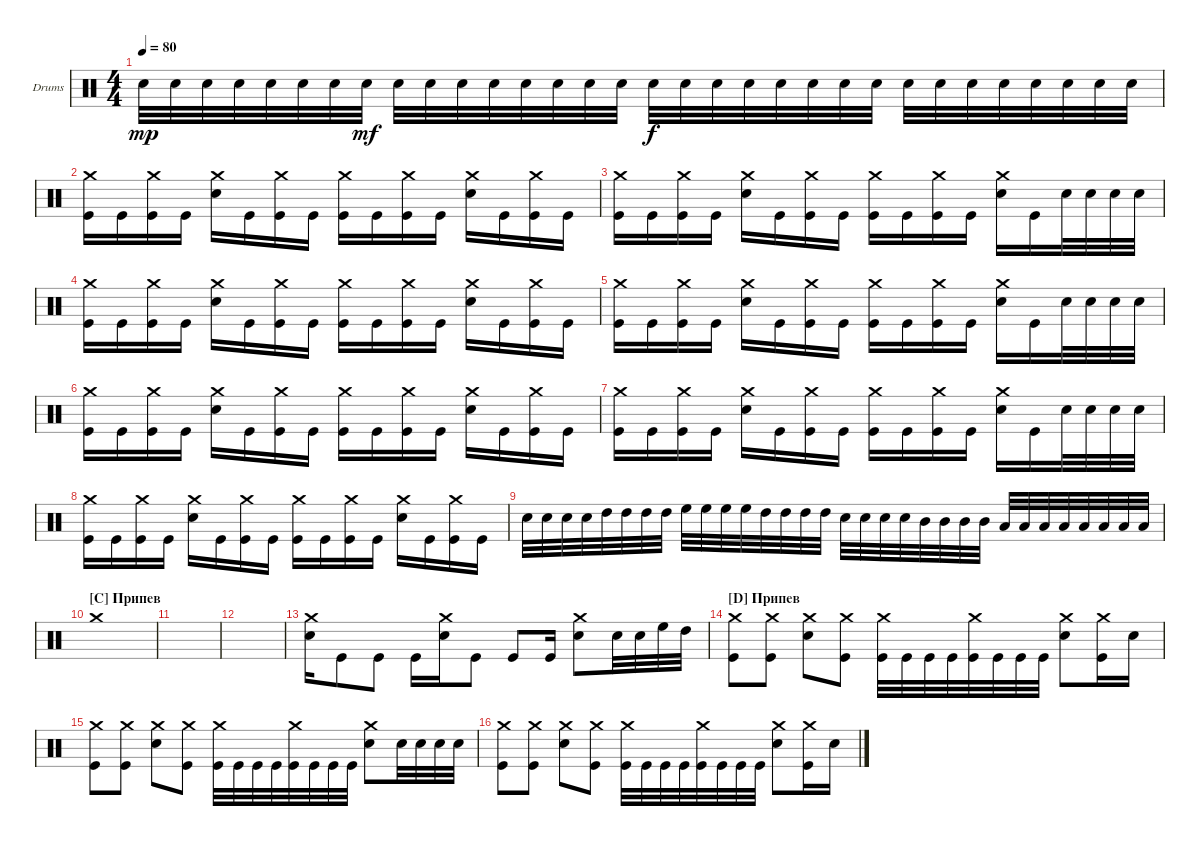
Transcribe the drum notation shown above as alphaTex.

\defaultSystemsLayout 4
\bracketExtendMode groupsimilarinstruments
\firstSystemTrackNameOrientation horizontal
\otherSystemsTrackNameOrientation horizontal
\track ("Drumkit" "Drums") {instrument percussion}
\staff {score}
\articulation defaults
\ts (4 4)
\tempo 80
\clef neutral
\ks c "Snare (hit) 2".32{dy mp} "Snare (hit) 2".32 "Snare (hit) 2".32 "Snare (hit) 2".32 "Snare (hit) 2".32 "Snare (hit) 2".32 "Snare (hit) 2".32 "Snare (hit) 2".32{dy mf} "Snare (hit) 2".32 "Snare (hit) 2".32 "Snare (hit) 2".32 "Snare (hit) 2".32 "Snare (hit) 2".32 "Snare (hit) 2".32 "Snare (hit) 2".32 "Snare (hit) 2".32 "Snare (hit) 2".32{dy f} "Snare (hit) 2".32 "Snare (hit) 2".32 "Snare (hit) 2".32 "Snare (hit) 2".32 "Snare (hit) 2".32 "Snare (hit) 2".32 "Snare (hit) 2".32 "Snare (hit) 2".32 "Snare (hit) 2".32 "Snare (hit) 2".32 "Snare (hit) 2".32 "Snare (hit) 2".32 "Snare (hit) 2".32 "Snare (hit) 2".32 "Snare (hit) 2".32
|
("Crash medium (hit)" "Kick (hit)").16 "Kick (hit)".16 ("Kick (hit)" "Crash medium (hit)").16 "Kick (hit)".16 ("Snare (hit) 2" "Crash medium (hit)").16 "Kick (hit)".16 ("Kick (hit)" "Crash medium (hit)").16 "Kick (hit)".16 ("Kick (hit)" "Crash medium (hit)").16 "Kick (hit)".16 ("Kick (hit)" "Crash medium (hit)").16 "Kick (hit)".16 ("Snare (hit) 2" "Crash medium (hit)").16 "Kick (hit)".16 ("Kick (hit)" "Crash medium (hit)").16 "Kick (hit)".16 |
("Crash medium (hit)" "Kick (hit)").16 "Kick (hit)".16 ("Kick (hit)" "Crash medium (hit)").16 "Kick (hit)".16 ("Snare (hit) 2" "Crash medium (hit)").16 "Kick (hit)".16 ("Kick (hit)" "Crash medium (hit)").16 "Kick (hit)".16 ("Kick (hit)" "Crash medium (hit)").16 "Kick (hit)".16 ("Kick (hit)" "Crash medium (hit)").16 "Kick (hit)".16 ("Snare (hit) 2" "Crash medium (hit)").16 "Kick (hit)".16 "Snare (hit) 2".32 "Snare (hit) 2".32 "Snare (hit) 2".32 "Snare (hit) 2".32 |
("Crash medium (hit)" "Kick (hit)").16 "Kick (hit)".16 ("Kick (hit)" "Crash medium (hit)").16 "Kick (hit)".16 ("Snare (hit) 2" "Crash medium (hit)").16 "Kick (hit)".16 ("Kick (hit)" "Crash medium (hit)").16 "Kick (hit)".16 ("Kick (hit)" "Crash medium (hit)").16 "Kick (hit)".16 ("Kick (hit)" "Crash medium (hit)").16 "Kick (hit)".16 ("Snare (hit) 2" "Crash medium (hit)").16 "Kick (hit)".16 ("Kick (hit)" "Crash medium (hit)").16 "Kick (hit)".16 |
("Crash medium (hit)" "Kick (hit)").16 "Kick (hit)".16 ("Kick (hit)" "Crash medium (hit)").16 "Kick (hit)".16 ("Snare (hit) 2" "Crash medium (hit)").16 "Kick (hit)".16 ("Kick (hit)" "Crash medium (hit)").16 "Kick (hit)".16 ("Kick (hit)" "Crash medium (hit)").16 "Kick (hit)".16 ("Kick (hit)" "Crash medium (hit)").16 "Kick (hit)".16 ("Snare (hit) 2" "Crash medium (hit)").16 "Kick (hit)".16 "Snare (hit) 2".32 "Snare (hit) 2".32 "Snare (hit) 2".32 "Snare (hit) 2".32 |
("Crash medium (hit)" "Kick (hit)").16 "Kick (hit)".16 ("Kick (hit)" "Crash medium (hit)").16 "Kick (hit)".16 ("Snare (hit) 2" "Crash medium (hit)").16 "Kick (hit)".16 ("Kick (hit)" "Crash medium (hit)").16 "Kick (hit)".16 ("Kick (hit)" "Crash medium (hit)").16 "Kick (hit)".16 ("Kick (hit)" "Crash medium (hit)").16 "Kick (hit)".16 ("Snare (hit) 2" "Crash medium (hit)").16 "Kick (hit)".16 ("Kick (hit)" "Crash medium (hit)").16 "Kick (hit)".16 |
("Crash medium (hit)" "Kick (hit)").16 "Kick (hit)".16 ("Kick (hit)" "Crash medium (hit)").16 "Kick (hit)".16 ("Snare (hit) 2" "Crash medium (hit)").16 "Kick (hit)".16 ("Kick (hit)" "Crash medium (hit)").16 "Kick (hit)".16 ("Kick (hit)" "Crash medium (hit)").16 "Kick (hit)".16 ("Kick (hit)" "Crash medium (hit)").16 "Kick (hit)".16 ("Snare (hit) 2" "Crash medium (hit)").16 "Kick (hit)".16 "Snare (hit) 2".32 "Snare (hit) 2".32 "Snare (hit) 2".32 "Snare (hit) 2".32 |
("Crash medium (hit)" "Kick (hit)").16 "Kick (hit)".16 ("Kick (hit)" "Crash medium (hit)").16 "Kick (hit)".16 ("Snare (hit) 2" "Crash medium (hit)").16 "Kick (hit)".16 ("Kick (hit)" "Crash medium (hit)").16 "Kick (hit)".16 ("Kick (hit)" "Crash medium (hit)").16 "Kick (hit)".16 ("Kick (hit)" "Crash medium (hit)").16 "Kick (hit)".16 ("Snare (hit) 2" "Crash medium (hit)").16 "Kick (hit)".16 ("Kick (hit)" "Crash medium (hit)").16 "Kick (hit)".16 |
"Snare (hit) 2".32 "Snare (hit) 2".32 "Snare (hit) 2".32 "Snare (hit) 2".32 "High Tom (hit)".32 "High Tom (hit)".32 "High Tom (hit)".32 "High Tom (hit)".32 "High Floor Tom (hit)".32 "High Floor Tom (hit)".32 "High Floor Tom (hit)".32 "High Floor Tom (hit)".32 "High Tom (hit)".32 "High Tom (hit)".32 "High Tom (hit)".32 "High Tom (hit)".32 "Snare (hit) 2".32 "Snare (hit) 2".32 "Snare (hit) 2".32 "Snare (hit) 2".32 "Mid Tom (hit)".32 "Mid Tom (hit)".32 "Mid Tom (hit)".32 "Mid Tom (hit)".32 "Low Tom (hit)".32 "Low Tom (hit)".32 "Low Tom (hit)".32 "Low Tom (hit)".32 "Low Tom (hit)".32 "Low Tom (hit)".32 "Low Tom (hit)".32 "Low Tom (hit)".32 |
\section ("C" "Припев")
"Crash medium (hit)".1 |
|
|
("Crash medium (hit)" "Snare (hit) 2").16 "Kick (hit)".8 "Kick (hit)".8 "Kick (hit)".16 ("Snare (hit) 2" "Crash medium (hit)").16 "Kick (hit)".8 "Kick (hit)".8 "Kick (hit)".16 ("Snare (hit) 2" "Crash medium (hit)").8 "Snare (hit) 2".32 "Snare (hit) 2".32 "High Floor Tom (hit)".32 "High Tom (hit)".32 |
\section ("D" "Припев")
("Kick (hit)" "Crash medium (hit)").8 ("Kick (hit)" "Crash medium (hit)").8 ("Snare (hit) 2" "Crash medium (hit)").8 ("Kick (hit)" "Crash medium (hit)").8 ("Kick (hit)" "Crash medium (hit)").32 "Kick (hit)".32 "Kick (hit)".32 "Kick (hit)".32 ("Kick (hit)" "Crash medium (hit)").32 "Kick (hit)".32 "Kick (hit)".32 "Kick (hit)".32 ("Snare (hit) 2" "Crash medium (hit)").8 ("Kick (hit)" "Crash medium (hit)").16 "Snare (hit) 2".16 |
("Kick (hit)" "Crash medium (hit)").8 ("Kick (hit)" "Crash medium (hit)").8 ("Snare (hit) 2" "Crash medium (hit)").8 ("Kick (hit)" "Crash medium (hit)").8 ("Kick (hit)" "Crash medium (hit)").32 "Kick (hit)".32 "Kick (hit)".32 "Kick (hit)".32 ("Kick (hit)" "Crash medium (hit)").32 "Kick (hit)".32 "Kick (hit)".32 "Kick (hit)".32 ("Snare (hit) 2" "Crash medium (hit)").8 "Snare (hit) 2".32 "Snare (hit) 2".32 "Snare (hit) 2".32 "Snare (hit) 2".32 |
("Kick (hit)" "Crash medium (hit)").8 ("Kick (hit)" "Crash medium (hit)").8 ("Snare (hit) 2" "Crash medium (hit)").8 ("Kick (hit)" "Crash medium (hit)").8 ("Kick (hit)" "Crash medium (hit)").32 "Kick (hit)".32 "Kick (hit)".32 "Kick (hit)".32 ("Kick (hit)" "Crash medium (hit)").32 "Kick (hit)".32 "Kick (hit)".32 "Kick (hit)".32 ("Snare (hit) 2" "Crash medium (hit)").8 ("Kick (hit)" "Crash medium (hit)").16 "Snare (hit) 2".16
